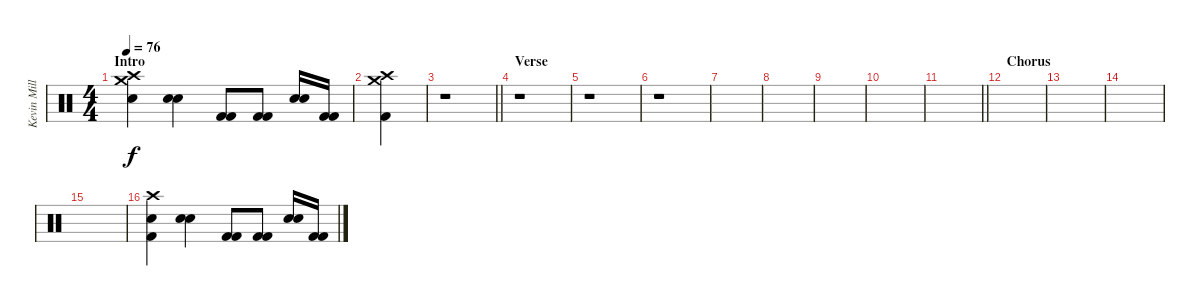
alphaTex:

\track ("Kevin Miller (Drums)" "Kevin Mill") {instrument percussion}
\staff {score}
\articulation defaults
\ts (4 4)
\section ("" "Intro")
\tempo 76
\clef neutral
\ks c
("Crash high (hit)" "Electric Snare (hit)" "Crash medium (hit)").4{dy f} ("Electric Snare (hit)" "Electric Snare (hit)").4 ("Kick (hit) 2" "Kick (hit) 2").8 ("Kick (hit) 2" "Kick (hit) 2").8 ("Electric Snare (hit)" "Electric Snare (hit)").16 ("Kick (hit) 2" "Kick (hit) 2").16 |
("Crash high (hit)" "Kick (hit) 2" "Crash medium (hit)").4 |
\barLineRight lightlight
r.1 |
\section ("" "Verse")
r.1 |
r.1 |
r.1 |
|
|
|
|
\barLineRight lightlight
|
\section ("" "Chorus")
|
|
|
|
("Crash high (hit)" "Electric Snare (hit)" "Kick (hit) 2").4 ("Electric Snare (hit)" "Electric Snare (hit)").4 ("Kick (hit) 2" "Kick (hit) 2").8 ("Kick (hit) 2" "Kick (hit) 2").8 ("Electric Snare (hit)" "Electric Snare (hit)").16 ("Kick (hit) 2" "Kick (hit) 2").16
